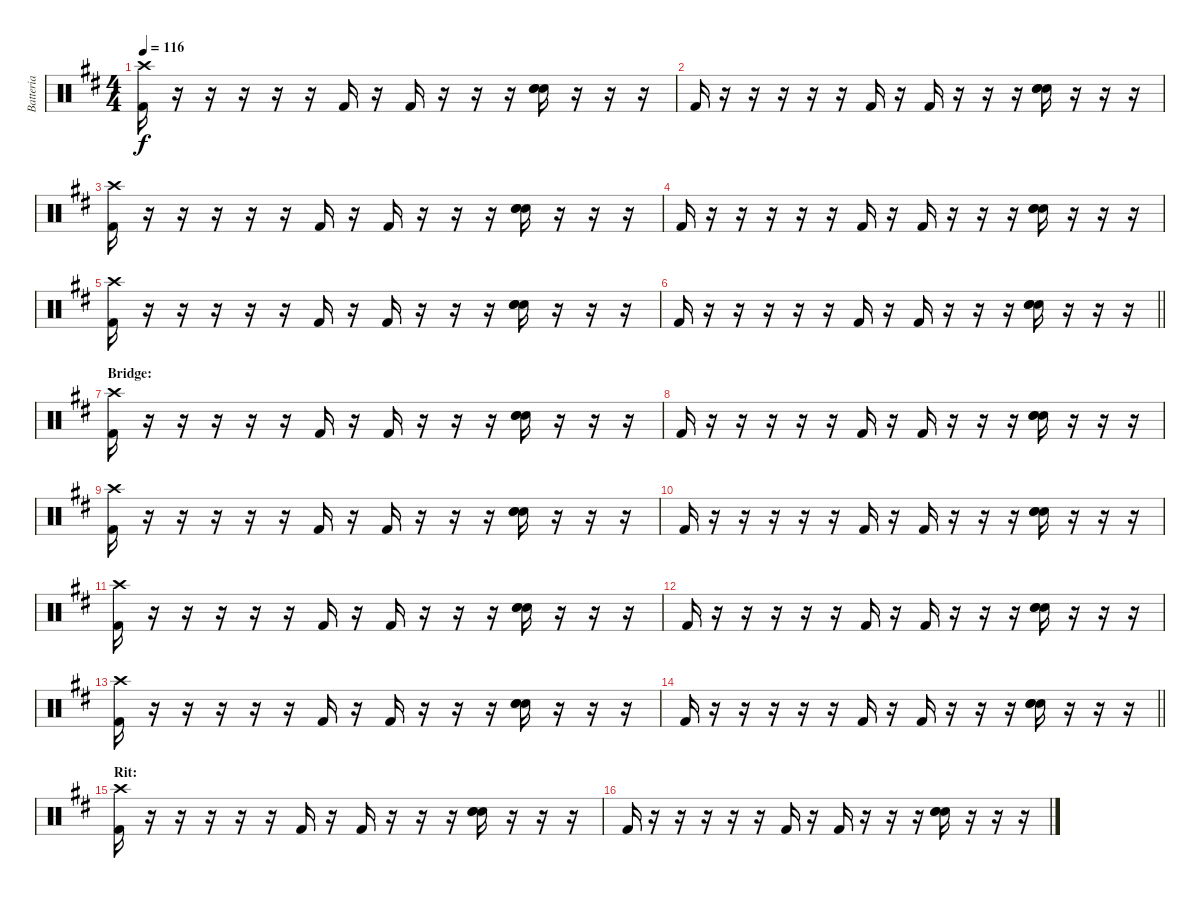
\track ("Batteria" "Batteria") {instrument percussion}
\staff {score}
\articulation defaults
\ts (4 4)
\tempo 116
\clef neutral
\ks d
("Kick (hit) 2" "Crash high (hit)").16{dy f} r.16 r.16 r.16 r.16 r.16 "Kick (hit) 2".16 r.16 "Kick (hit) 2".16 r.16 r.16 r.16 ("Snare (hit) 2" "Hand Clap (hit)" "Hand Clap (hit)").16 r.16 r.16 r.16 |
"Kick (hit) 2".16 r.16 r.16 r.16 r.16 r.16 "Kick (hit) 2".16 r.16 "Kick (hit) 2".16 r.16 r.16 r.16 ("Snare (hit) 2" "Hand Clap (hit)" "Hand Clap (hit)").16 r.16 r.16 r.16 |
("Kick (hit) 2" "Crash high (hit)").16 r.16 r.16 r.16 r.16 r.16 "Kick (hit) 2".16 r.16 "Kick (hit) 2".16 r.16 r.16 r.16 ("Snare (hit) 2" "Hand Clap (hit)" "Hand Clap (hit)").16 r.16 r.16 r.16 |
"Kick (hit) 2".16 r.16 r.16 r.16 r.16 r.16 "Kick (hit) 2".16 r.16 "Kick (hit) 2".16 r.16 r.16 r.16 ("Snare (hit) 2" "Hand Clap (hit)" "Hand Clap (hit)").16 r.16 r.16 r.16 |
("Kick (hit) 2" "Crash high (hit)").16 r.16 r.16 r.16 r.16 r.16 "Kick (hit) 2".16 r.16 "Kick (hit) 2".16 r.16 r.16 r.16 ("Snare (hit) 2" "Hand Clap (hit)" "Hand Clap (hit)").16 r.16 r.16 r.16 |
\barLineRight lightlight "Kick (hit) 2".16
r.16 r.16 r.16 r.16 r.16 "Kick (hit) 2".16 r.16 "Kick (hit) 2".16 r.16 r.16 r.16 ("Snare (hit) 2" "Hand Clap (hit)" "Hand Clap (hit)").16 r.16 r.16 r.16 |
\section ("" "Bridge:")
("Kick (hit) 2" "Crash high (hit)").16 r.16 r.16 r.16 r.16 r.16 "Kick (hit) 2".16 r.16 "Kick (hit) 2".16 r.16 r.16 r.16 ("Snare (hit) 2" "Hand Clap (hit)" "Hand Clap (hit)").16 r.16 r.16 r.16 |
"Kick (hit) 2".16 r.16 r.16 r.16 r.16 r.16 "Kick (hit) 2".16 r.16 "Kick (hit) 2".16 r.16 r.16 r.16 ("Snare (hit) 2" "Hand Clap (hit)" "Hand Clap (hit)").16 r.16 r.16 r.16 |
("Kick (hit) 2" "Crash high (hit)").16 r.16 r.16 r.16 r.16 r.16 "Kick (hit) 2".16 r.16 "Kick (hit) 2".16 r.16 r.16 r.16 ("Snare (hit) 2" "Hand Clap (hit)" "Hand Clap (hit)").16 r.16 r.16 r.16 |
"Kick (hit) 2".16 r.16 r.16 r.16 r.16 r.16 "Kick (hit) 2".16 r.16 "Kick (hit) 2".16 r.16 r.16 r.16 ("Snare (hit) 2" "Hand Clap (hit)" "Hand Clap (hit)").16 r.16 r.16 r.16 |
("Kick (hit) 2" "Crash high (hit)").16 r.16 r.16 r.16 r.16 r.16 "Kick (hit) 2".16 r.16 "Kick (hit) 2".16 r.16 r.16 r.16 ("Snare (hit) 2" "Hand Clap (hit)" "Hand Clap (hit)").16 r.16 r.16 r.16 |
"Kick (hit) 2".16 r.16 r.16 r.16 r.16 r.16 "Kick (hit) 2".16 r.16 "Kick (hit) 2".16 r.16 r.16 r.16 ("Snare (hit) 2" "Hand Clap (hit)" "Hand Clap (hit)").16 r.16 r.16 r.16 |
("Kick (hit) 2" "Crash high (hit)").16 r.16 r.16 r.16 r.16 r.16 "Kick (hit) 2".16 r.16 "Kick (hit) 2".16 r.16 r.16 r.16 ("Snare (hit) 2" "Hand Clap (hit)" "Hand Clap (hit)").16 r.16 r.16 r.16 |
\barLineRight lightlight "Kick (hit) 2".16
r.16 r.16 r.16 r.16 r.16 "Kick (hit) 2".16 r.16 "Kick (hit) 2".16 r.16 r.16 r.16 ("Snare (hit) 2" "Hand Clap (hit)" "Hand Clap (hit)").16 r.16 r.16 r.16 |
\section ("" "Rit:")
("Kick (hit) 2" "Crash high (hit)").16 r.16 r.16 r.16 r.16 r.16 "Kick (hit) 2".16 r.16 "Kick (hit) 2".16 r.16 r.16 r.16 ("Snare (hit) 2" "Hand Clap (hit)" "Hand Clap (hit)").16 r.16 r.16 r.16 |
"Kick (hit) 2".16 r.16 r.16 r.16 r.16 r.16 "Kick (hit) 2".16 r.16 "Kick (hit) 2".16 r.16 r.16 r.16 ("Snare (hit) 2" "Hand Clap (hit)" "Hand Clap (hit)").16 r.16 r.16 r.16
